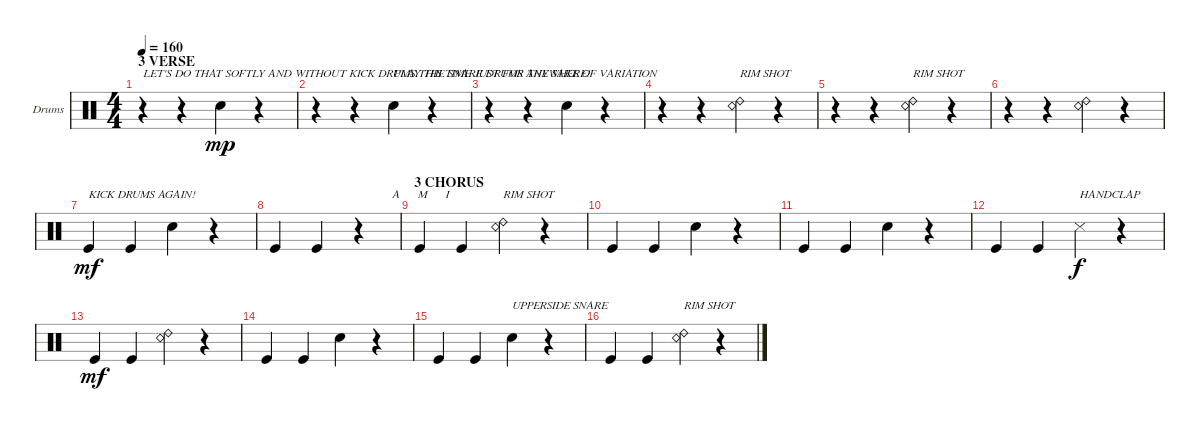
\defaultSystemsLayout 4
\bracketExtendMode groupsimilarinstruments
\firstSystemTrackNameOrientation horizontal
\otherSystemsTrackNameOrientation horizontal
\track ("Drumkit" "Drums") {instrument percussion}
\staff {score}
\articulation defaults
\ts (4 4)
\section ("" "3 VERSE")
\tempo 160
\clef neutral
\ks c
r.4{txt "LET'S DO THAT SOFTLY AND WITHOUT KICK DRUMS THIS TIME JUST FOR THE SAKE OF VARIATION" dy mf} r.4 "Snare (hit) 2".4{dy mp} r.4 |
r.4 r.4 "Snare (hit) 2".4{txt "PLAY THE SNARE DRUMS ANYWHERE!"} r.4 |
r.4 r.4 "Snare (hit) 2".4 r.4 |
r.4 r.4 ("Snare (rim shot)" "Ride (bell) 2").4{txt "RIM SHOT"} r.4 |
r.4 r.4 ("Snare (rim shot)" "Ride (bell) 2").4{txt "RIM SHOT"} r.4 |
r.4 r.4 ("Snare (rim shot)" "Ride (bell) 2").4 r.4 |
"Kick (hit)".4{txt "KICK DRUMS AGAIN!" dy mf} "Kick (hit)".4 "Snare (hit) 2".4 r.4 |
"Kick (hit)".4 "Kick (hit)".4{txt "                         A      M      I"} r.4 |
\section ("" "3 CHORUS")
"Kick (hit)".4 "Kick (hit)".4 ("Snare (rim shot)" "Ride (bell) 2").4{txt "RIM SHOT"} r.4 |
"Kick (hit)".4 "Kick (hit)".4 "Snare (hit) 2".4 r.4 |
"Kick (hit)".4 "Kick (hit)".4 "Snare (hit) 2".4 r.4 |
"Kick (hit)".4 "Kick (hit)".4 "Snare (side stick) 3".4{txt "HANDCLAP" dy f} r.4 |
"Kick (hit)".4{dy mf} "Kick (hit)".4 ("Snare (rim shot)" "Ride (bell) 2").4 r.4 |
"Kick (hit)".4 "Kick (hit)".4 "Snare (hit) 2".4 r.4 |
"Kick (hit)".4 "Kick (hit)".4 "Snare (hit) 2".4{txt "UPPERSIDE SNARE"} r.4 |
"Kick (hit)".4 "Kick (hit)".4 ("Snare (rim shot)" "Ride (bell) 2").4{txt "RIM SHOT"} r.4
